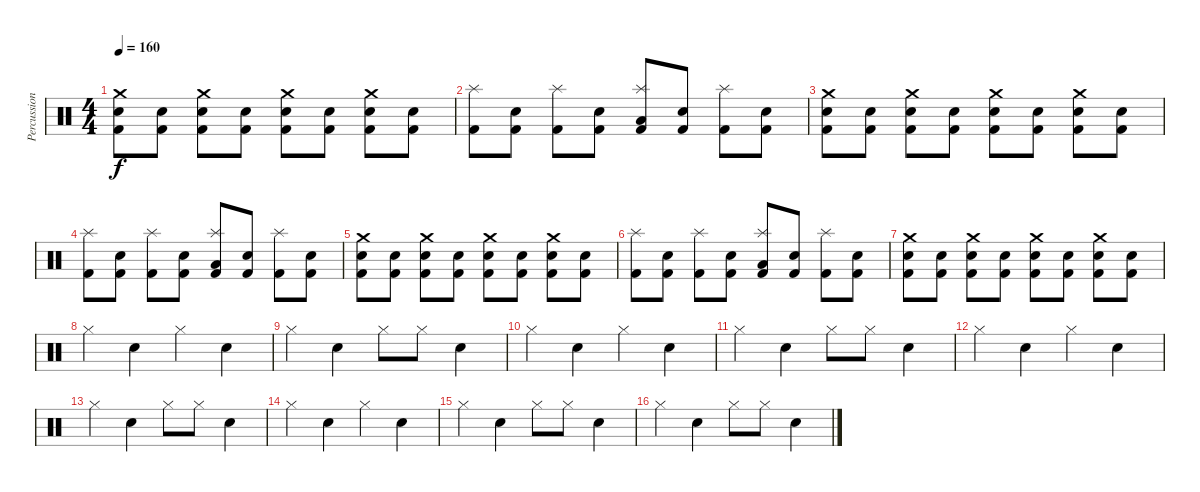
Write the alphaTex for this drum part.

\track ("Percussion" "Percussion") {instrument percussion}
\staff {score}
\articulation defaults
\ts (4 4)
\tempo 160
\clef neutral
\ks c
("Kick (hit) 2" "Snare (hit) 2" "Crash medium (hit)").8{dy f} ("Kick (hit) 2" "Snare (hit) 2").8 ("Kick (hit) 2" "Snare (hit) 2" "Crash medium (hit)").8 ("Kick (hit) 2" "Snare (hit) 2").8 ("Kick (hit) 2" "Snare (hit) 2" "Crash medium (hit)").8 ("Kick (hit) 2" "Snare (hit) 2").8 ("Kick (hit) 2" "Snare (hit) 2" "Crash medium (hit)").8 ("Kick (hit) 2" "Snare (hit) 2").8 |
("Kick (hit) 2" "Splash (hit)").8 ("Kick (hit) 2" "Snare (hit) 2").8 ("Kick (hit) 2" "Splash (hit)").8 ("Kick (hit) 2" "Snare (hit) 2").8 ("Kick (hit) 2" "Low Tom (hit)" "Splash (hit)").8 ("Kick (hit) 2" "Snare (hit) 2").8 ("Kick (hit) 2" "Splash (hit)").8 ("Kick (hit) 2" "Snare (hit) 2").8 |
("Kick (hit) 2" "Snare (hit) 2" "Crash medium (hit)").8 ("Kick (hit) 2" "Snare (hit) 2").8 ("Kick (hit) 2" "Snare (hit) 2" "Crash medium (hit)").8 ("Kick (hit) 2" "Snare (hit) 2").8 ("Kick (hit) 2" "Snare (hit) 2" "Crash medium (hit)").8 ("Kick (hit) 2" "Snare (hit) 2").8 ("Kick (hit) 2" "Snare (hit) 2" "Crash medium (hit)").8 ("Kick (hit) 2" "Snare (hit) 2").8 |
("Kick (hit) 2" "Splash (hit)").8 ("Kick (hit) 2" "Snare (hit) 2").8 ("Kick (hit) 2" "Splash (hit)").8 ("Kick (hit) 2" "Snare (hit) 2").8 ("Kick (hit) 2" "Low Tom (hit)" "Splash (hit)").8 ("Kick (hit) 2" "Snare (hit) 2").8 ("Kick (hit) 2" "Splash (hit)").8 ("Kick (hit) 2" "Snare (hit) 2").8 |
("Kick (hit) 2" "Snare (hit) 2" "Crash medium (hit)").8 ("Kick (hit) 2" "Snare (hit) 2").8 ("Kick (hit) 2" "Snare (hit) 2" "Crash medium (hit)").8 ("Kick (hit) 2" "Snare (hit) 2").8 ("Kick (hit) 2" "Snare (hit) 2" "Crash medium (hit)").8 ("Kick (hit) 2" "Snare (hit) 2").8 ("Kick (hit) 2" "Snare (hit) 2" "Crash medium (hit)").8 ("Kick (hit) 2" "Snare (hit) 2").8 |
("Kick (hit) 2" "Splash (hit)").8 ("Kick (hit) 2" "Snare (hit) 2").8 ("Kick (hit) 2" "Splash (hit)").8 ("Kick (hit) 2" "Snare (hit) 2").8 ("Kick (hit) 2" "Low Tom (hit)" "Splash (hit)").8 ("Kick (hit) 2" "Snare (hit) 2").8 ("Kick (hit) 2" "Splash (hit)").8 ("Kick (hit) 2" "Snare (hit) 2").8 |
("Kick (hit) 2" "Snare (hit) 2" "Crash medium (hit)").8 ("Kick (hit) 2" "Snare (hit) 2").8 ("Kick (hit) 2" "Snare (hit) 2" "Crash medium (hit)").8 ("Kick (hit) 2" "Snare (hit) 2").8 ("Kick (hit) 2" "Snare (hit) 2" "Crash medium (hit)").8 ("Kick (hit) 2" "Snare (hit) 2").8 ("Kick (hit) 2" "Snare (hit) 2" "Crash medium (hit)").8 ("Kick (hit) 2" "Snare (hit) 2").8 |
"Hi-Hat (closed)".4 "Snare (hit) 2".4 "Hi-Hat (closed)".4 "Snare (hit) 2".4 |
"Hi-Hat (closed)".4 "Snare (hit) 2".4 "Hi-Hat (closed)".8 "Hi-Hat (closed)".8 "Snare (hit) 2".4 |
"Hi-Hat (closed)".4 "Snare (hit) 2".4 "Hi-Hat (closed)".4 "Snare (hit) 2".4 |
"Hi-Hat (closed)".4 "Snare (hit) 2".4 "Hi-Hat (closed)".8 "Hi-Hat (closed)".8 "Snare (hit) 2".4 |
"Hi-Hat (closed)".4 "Snare (hit) 2".4 "Hi-Hat (closed)".4 "Snare (hit) 2".4 |
"Hi-Hat (closed)".4 "Snare (hit) 2".4 "Hi-Hat (closed)".8 "Hi-Hat (closed)".8 "Snare (hit) 2".4 |
"Hi-Hat (closed)".4 "Snare (hit) 2".4 "Hi-Hat (closed)".4 "Snare (hit) 2".4 |
"Hi-Hat (closed)".4 "Snare (hit) 2".4 "Hi-Hat (closed)".8 "Hi-Hat (closed)".8 "Snare (hit) 2".4 |
"Hi-Hat (closed)".4 "Snare (hit) 2".4 "Hi-Hat (closed)".8 "Hi-Hat (closed)".8 "Snare (hit) 2".4
